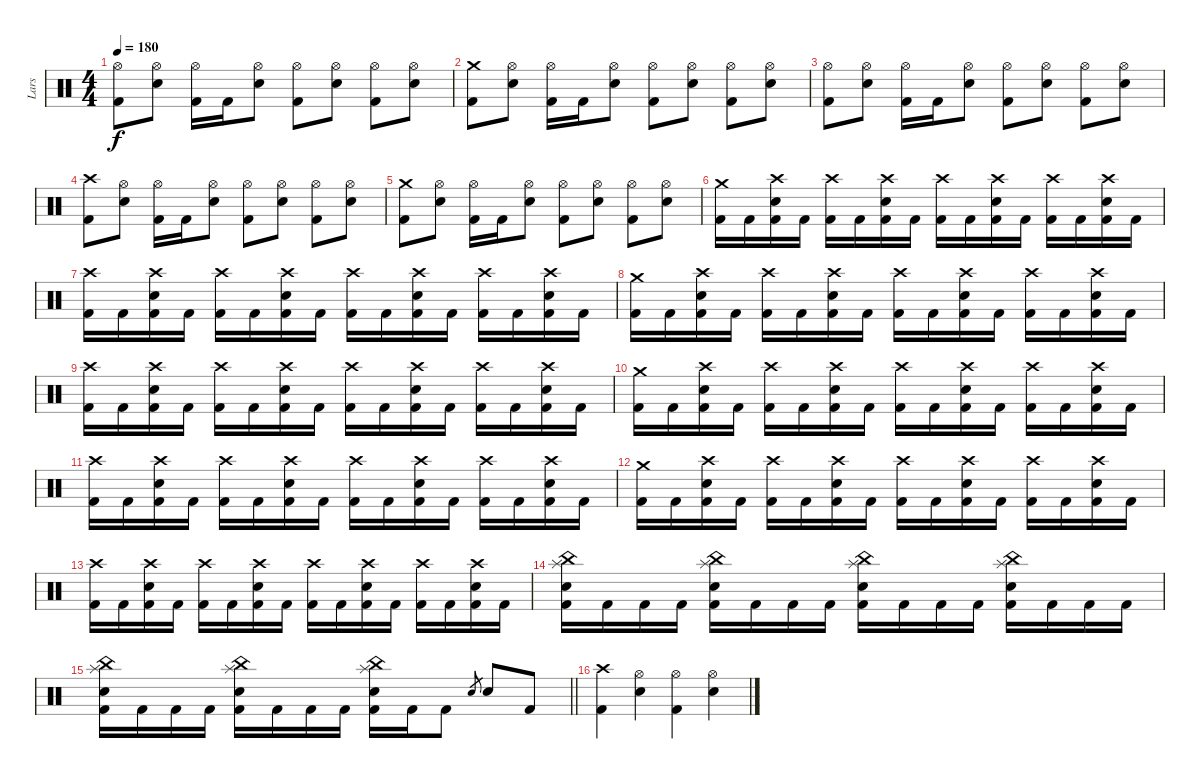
\track ("Lars" "Lars") {instrument percussion}
\staff {score}
\articulation defaults
\ts (4 4)
\tempo 180
\clef neutral
\ks c
("Hi-Hat (open)" "Kick (hit) 2").8{dy f} ("Hi-Hat (open)" "Electric Snare (hit)").8 ("Hi-Hat (open)" "Kick (hit) 2").16 "Kick (hit) 2".16 ("Hi-Hat (open)" "Electric Snare (hit)").8 ("Hi-Hat (open)" "Kick (hit) 2").8 ("Hi-Hat (open)" "Electric Snare (hit)").8 ("Hi-Hat (open)" "Kick (hit) 2").8 ("Hi-Hat (open)" "Electric Snare (hit)").8 |
("Crash medium (hit)" "Kick (hit) 2").8 ("Hi-Hat (open)" "Electric Snare (hit)").8 ("Hi-Hat (open)" "Kick (hit) 2").16 "Kick (hit) 2".16 ("Hi-Hat (open)" "Electric Snare (hit)").8 ("Hi-Hat (open)" "Kick (hit) 2").8 ("Hi-Hat (open)" "Electric Snare (hit)").8 ("Hi-Hat (open)" "Kick (hit) 2").8 ("Hi-Hat (open)" "Electric Snare (hit)").8 |
("Hi-Hat (open)" "Kick (hit) 2").8 ("Hi-Hat (open)" "Electric Snare (hit)").8 ("Hi-Hat (open)" "Kick (hit) 2").16 "Kick (hit) 2".16 ("Hi-Hat (open)" "Electric Snare (hit)").8 ("Hi-Hat (open)" "Kick (hit) 2").8 ("Hi-Hat (open)" "Electric Snare (hit)").8 ("Hi-Hat (open)" "Kick (hit) 2").8 ("Hi-Hat (open)" "Electric Snare (hit)").8 |
("Crash high (hit)" "Kick (hit) 2").8 ("Hi-Hat (open)" "Electric Snare (hit)").8 ("Hi-Hat (open)" "Kick (hit) 2").16 "Kick (hit) 2".16 ("Hi-Hat (open)" "Electric Snare (hit)").8 ("Hi-Hat (open)" "Kick (hit) 2").8 ("Hi-Hat (open)" "Electric Snare (hit)").8 ("Hi-Hat (open)" "Kick (hit) 2").8 ("Hi-Hat (open)" "Electric Snare (hit)").8 |
("Crash medium (hit)" "Kick (hit) 2").8 ("Hi-Hat (open)" "Electric Snare (hit)").8 ("Hi-Hat (open)" "Kick (hit) 2").16 "Kick (hit) 2".16 ("Hi-Hat (open)" "Electric Snare (hit)").8 ("Hi-Hat (open)" "Kick (hit) 2").8 ("Hi-Hat (open)" "Electric Snare (hit)").8 ("Hi-Hat (open)" "Kick (hit) 2").8 ("Hi-Hat (open)" "Electric Snare (hit)").8 |
("Crash medium (hit)" "Kick (hit) 2").16 "Kick (hit) 2".16 ("Crash high (hit)" "Electric Snare (hit)" "Kick (hit) 2").16 "Kick (hit) 2".16 ("Crash high (hit)" "Kick (hit) 2").16 "Kick (hit) 2".16 ("Crash high (hit)" "Electric Snare (hit)" "Kick (hit) 2").16 "Kick (hit) 2".16 ("Crash high (hit)" "Kick (hit) 2").16 "Kick (hit) 2".16 ("Crash high (hit)" "Electric Snare (hit)" "Kick (hit) 2").16 "Kick (hit) 2".16 ("Crash high (hit)" "Kick (hit) 2").16 "Kick (hit) 2".16 ("Crash high (hit)" "Electric Snare (hit)" "Kick (hit) 2").16 "Kick (hit) 2".16 |
("Crash high (hit)" "Kick (hit) 2").16 "Kick (hit) 2".16 ("Crash high (hit)" "Electric Snare (hit)" "Kick (hit) 2").16 "Kick (hit) 2".16 ("Crash high (hit)" "Kick (hit) 2").16 "Kick (hit) 2".16 ("Crash high (hit)" "Electric Snare (hit)" "Kick (hit) 2").16 "Kick (hit) 2".16 ("Crash high (hit)" "Kick (hit) 2").16 "Kick (hit) 2".16 ("Crash high (hit)" "Electric Snare (hit)" "Kick (hit) 2").16 "Kick (hit) 2".16 ("Crash high (hit)" "Kick (hit) 2").16 "Kick (hit) 2".16 ("Crash high (hit)" "Electric Snare (hit)" "Kick (hit) 2").16 "Kick (hit) 2".16 |
("Crash medium (hit)" "Kick (hit) 2").16 "Kick (hit) 2".16 ("Crash high (hit)" "Electric Snare (hit)" "Kick (hit) 2").16 "Kick (hit) 2".16 ("Crash high (hit)" "Kick (hit) 2").16 "Kick (hit) 2".16 ("Crash high (hit)" "Electric Snare (hit)" "Kick (hit) 2").16 "Kick (hit) 2".16 ("Crash high (hit)" "Kick (hit) 2").16 "Kick (hit) 2".16 ("Crash high (hit)" "Electric Snare (hit)" "Kick (hit) 2").16 "Kick (hit) 2".16 ("Crash high (hit)" "Kick (hit) 2").16 "Kick (hit) 2".16 ("Crash high (hit)" "Electric Snare (hit)" "Kick (hit) 2").16 "Kick (hit) 2".16 |
("Crash high (hit)" "Kick (hit) 2").16 "Kick (hit) 2".16 ("Crash high (hit)" "Electric Snare (hit)" "Kick (hit) 2").16 "Kick (hit) 2".16 ("Crash high (hit)" "Kick (hit) 2").16 "Kick (hit) 2".16 ("Crash high (hit)" "Electric Snare (hit)" "Kick (hit) 2").16 "Kick (hit) 2".16 ("Crash high (hit)" "Kick (hit) 2").16 "Kick (hit) 2".16 ("Crash high (hit)" "Electric Snare (hit)" "Kick (hit) 2").16 "Kick (hit) 2".16 ("Crash high (hit)" "Kick (hit) 2").16 "Kick (hit) 2".16 ("Crash high (hit)" "Electric Snare (hit)" "Kick (hit) 2").16 "Kick (hit) 2".16 |
("Crash medium (hit)" "Kick (hit) 2").16 "Kick (hit) 2".16 ("Crash high (hit)" "Electric Snare (hit)" "Kick (hit) 2").16 "Kick (hit) 2".16 ("Crash high (hit)" "Kick (hit) 2").16 "Kick (hit) 2".16 ("Crash high (hit)" "Electric Snare (hit)" "Kick (hit) 2").16 "Kick (hit) 2".16 ("Crash high (hit)" "Kick (hit) 2").16 "Kick (hit) 2".16 ("Crash high (hit)" "Electric Snare (hit)" "Kick (hit) 2").16 "Kick (hit) 2".16 ("Crash high (hit)" "Kick (hit) 2").16 "Kick (hit) 2".16 ("Crash high (hit)" "Electric Snare (hit)" "Kick (hit) 2").16 "Kick (hit) 2".16 |
("Crash high (hit)" "Kick (hit) 2").16 "Kick (hit) 2".16 ("Crash high (hit)" "Electric Snare (hit)" "Kick (hit) 2").16 "Kick (hit) 2".16 ("Crash high (hit)" "Kick (hit) 2").16 "Kick (hit) 2".16 ("Crash high (hit)" "Electric Snare (hit)" "Kick (hit) 2").16 "Kick (hit) 2".16 ("Crash high (hit)" "Kick (hit) 2").16 "Kick (hit) 2".16 ("Crash high (hit)" "Electric Snare (hit)" "Kick (hit) 2").16 "Kick (hit) 2".16 ("Crash high (hit)" "Kick (hit) 2").16 "Kick (hit) 2".16 ("Crash high (hit)" "Electric Snare (hit)" "Kick (hit) 2").16 "Kick (hit) 2".16 |
("Crash medium (hit)" "Kick (hit) 2").16 "Kick (hit) 2".16 ("Crash high (hit)" "Electric Snare (hit)" "Kick (hit) 2").16 "Kick (hit) 2".16 ("Crash high (hit)" "Kick (hit) 2").16 "Kick (hit) 2".16 ("Crash high (hit)" "Electric Snare (hit)" "Kick (hit) 2").16 "Kick (hit) 2".16 ("Crash high (hit)" "Kick (hit) 2").16 "Kick (hit) 2".16 ("Crash high (hit)" "Electric Snare (hit)" "Kick (hit) 2").16 "Kick (hit) 2".16 ("Crash high (hit)" "Kick (hit) 2").16 "Kick (hit) 2".16 ("Crash high (hit)" "Electric Snare (hit)" "Kick (hit) 2").16 "Kick (hit) 2".16 |
("Crash high (hit)" "Kick (hit) 2").16 "Kick (hit) 2".16 ("Crash high (hit)" "Electric Snare (hit)" "Kick (hit) 2").16 "Kick (hit) 2".16 ("Crash high (hit)" "Kick (hit) 2").16 "Kick (hit) 2".16 ("Crash high (hit)" "Electric Snare (hit)" "Kick (hit) 2").16 "Kick (hit) 2".16 ("Crash high (hit)" "Kick (hit) 2").16 "Kick (hit) 2".16 ("Crash high (hit)" "Electric Snare (hit)" "Kick (hit) 2").16 "Kick (hit) 2".16 ("Crash high (hit)" "Kick (hit) 2").16 "Kick (hit) 2".16 ("Crash high (hit)" "Electric Snare (hit)" "Kick (hit) 2").16 "Kick (hit) 2".16 |
("Splash (hit)" "China (hit)" "Electric Snare (hit)" "Kick (hit) 2").16 "Kick (hit) 2".16 "Kick (hit) 2".16 "Kick (hit) 2".16 ("Splash (hit)" "China (hit)" "Electric Snare (hit)" "Kick (hit) 2").16 "Kick (hit) 2".16 "Kick (hit) 2".16 "Kick (hit) 2".16 ("Splash (hit)" "China (hit)" "Electric Snare (hit)" "Kick (hit) 2").16 "Kick (hit) 2".16 "Kick (hit) 2".16 "Kick (hit) 2".16 ("Splash (hit)" "China (hit)" "Electric Snare (hit)" "Kick (hit) 2").16 "Kick (hit) 2".16 "Kick (hit) 2".16 "Kick (hit) 2".16 |
\barLineRight lightlight
("Splash (hit)" "China (hit)" "Electric Snare (hit)" "Kick (hit) 2").16 "Kick (hit) 2".16 "Kick (hit) 2".16 "Kick (hit) 2".16 ("Splash (hit)" "China (hit)" "Electric Snare (hit)" "Kick (hit) 2").16 "Kick (hit) 2".16 "Kick (hit) 2".16 "Kick (hit) 2".16 ("Splash (hit)" "China (hit)" "Electric Snare (hit)" "Kick (hit) 2").16 "Kick (hit) 2".16 "Kick (hit) 2".8 "Electric Snare (hit)".8{gr} "Electric Snare (hit)".8 "Kick (hit) 2".8 |
\section ("" "")
("Crash high (hit)" "Kick (hit) 2").4 ("Hi-Hat (open)" "Electric Snare (hit)").4 ("Hi-Hat (open)" "Kick (hit) 2").4 ("Hi-Hat (open)" "Electric Snare (hit)").4
